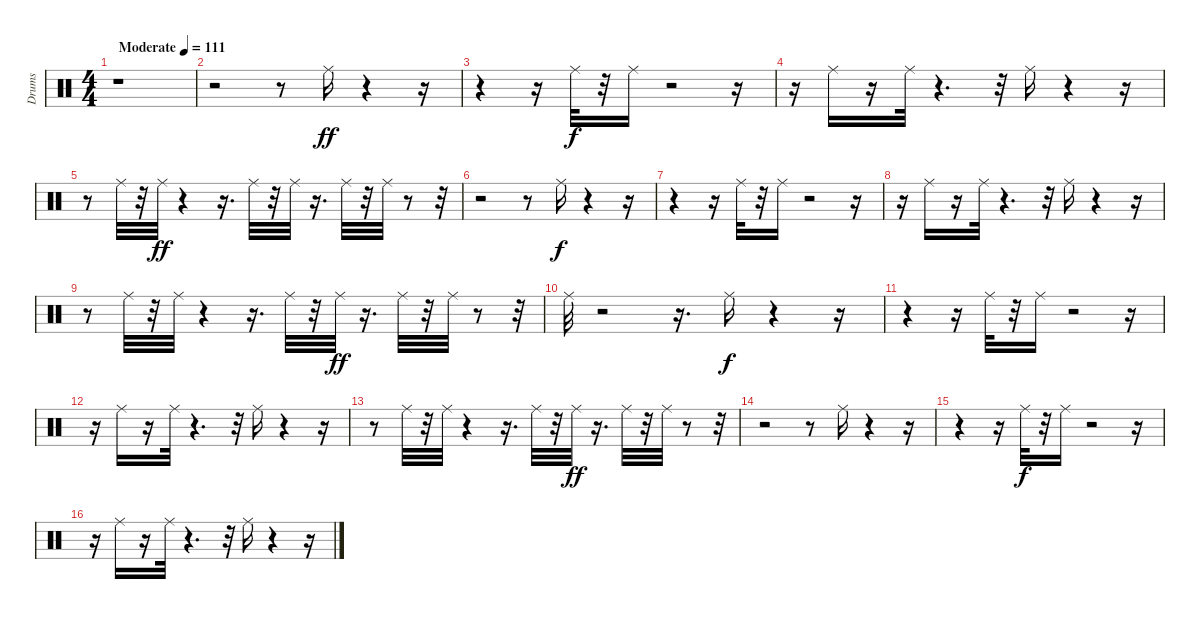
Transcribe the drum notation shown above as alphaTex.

\track ("Drums" "Drums") {instrument percussion}
\staff {score}
\articulation defaults
\ts (4 4)
\tempo (111 "Moderate")
\clef neutral
\ks c
r.1{dy ff} |
r.2 r.8 "Ride (middle)".16 r.4 r.16 |
r.4 r.16 "Ride (middle)".32{dy f} r.32 "Ride (middle)".16 r.2 r.16 |
r.16 "Ride (middle)".16 r.16 "Ride (middle)".32 r.4{d} r.32 "Ride (middle)".16 r.4 r.16 |
r.8 "Ride (middle)".32 r.32 "Ride (middle)".32{dy ff} r.4 r.16{d} "Ride (middle)".32 r.32 "Ride (middle)".32 r.16{d} "Ride (middle)".32 r.32 "Ride (middle)".32 r.8 r.32 |
r.2 r.8 "Ride (middle)".16{dy f} r.4 r.16 |
r.4 r.16 "Ride (middle)".32 r.32 "Ride (middle)".16 r.2 r.16 |
r.16 "Ride (middle)".16 r.16 "Ride (middle)".32 r.4{d} r.32 "Ride (middle)".16 r.4 r.16 |
r.8 "Ride (middle)".32 r.32 "Ride (middle)".32 r.4 r.16{d} "Ride (middle)".32 r.32 "Ride (middle)".32{dy ff} r.16{d} "Ride (middle)".32 r.32 "Ride (middle)".32 r.8 r.32 |
"Ride (middle)".32 r.2 r.16{d} "Ride (middle)".16{dy f} r.4 r.16 |
r.4 r.16 "Ride (middle)".32 r.32 "Ride (middle)".16 r.2 r.16 |
r.16 "Ride (middle)".16 r.16 "Ride (middle)".32 r.4{d} r.32 "Ride (middle)".16 r.4 r.16 |
r.8 "Ride (middle)".32 r.32 "Ride (middle)".32 r.4 r.16{d} "Ride (middle)".32 r.32 "Ride (middle)".32{dy ff} r.16{d} "Ride (middle)".32 r.32 "Ride (middle)".32 r.8 r.32 |
r.2 r.8 "Ride (middle)".16 r.4 r.16 |
r.4 r.16 "Ride (middle)".32{dy f} r.32 "Ride (middle)".16 r.2 r.16 |
r.16 "Ride (middle)".16 r.16 "Ride (middle)".32 r.4{d} r.32 "Ride (middle)".16 r.4 r.16
